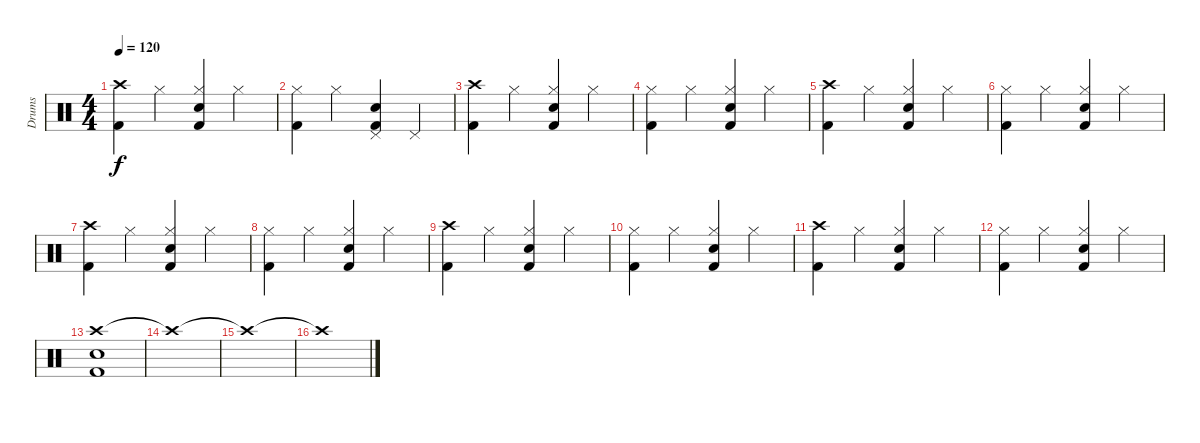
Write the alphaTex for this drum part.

\track ("Drums" "Drums") {instrument percussion}
\staff {score}
\articulation defaults
\ts (4 4)
\tempo 120
\clef neutral
\ks c
("Crash high (hit)" "Kick (hit) 2").4{dy f} "Hi-Hat (closed)".4 ("Hi-Hat (closed)" "Electric Snare (hit)" "Kick (hit) 2").4 "Hi-Hat (closed)".4 |
("Hi-Hat (closed)" "Kick (hit) 2").4 "Hi-Hat (closed)".4 ("Pedal Hi-Hat (hit)" "Electric Snare (hit)" "Kick (hit) 2").4 "Pedal Hi-Hat (hit)".4 |
("Crash high (hit)" "Kick (hit) 2").4 "Hi-Hat (closed)".4 ("Hi-Hat (closed)" "Electric Snare (hit)" "Kick (hit) 2").4 "Hi-Hat (closed)".4 |
("Hi-Hat (closed)" "Kick (hit) 2").4 "Hi-Hat (closed)".4 ("Hi-Hat (closed)" "Electric Snare (hit)" "Kick (hit) 2").4 "Hi-Hat (closed)".4 |
("Crash high (hit)" "Kick (hit) 2").4 "Hi-Hat (closed)".4 ("Hi-Hat (closed)" "Electric Snare (hit)" "Kick (hit) 2").4 "Hi-Hat (closed)".4 |
("Hi-Hat (closed)" "Kick (hit) 2").4 "Hi-Hat (closed)".4 ("Hi-Hat (closed)" "Electric Snare (hit)" "Kick (hit) 2").4 "Hi-Hat (closed)".4 |
("Crash high (hit)" "Kick (hit) 2").4 "Hi-Hat (closed)".4 ("Hi-Hat (closed)" "Electric Snare (hit)" "Kick (hit) 2").4 "Hi-Hat (closed)".4 |
("Hi-Hat (closed)" "Kick (hit) 2").4 "Hi-Hat (closed)".4 ("Hi-Hat (closed)" "Electric Snare (hit)" "Kick (hit) 2").4 "Hi-Hat (closed)".4 |
("Crash high (hit)" "Kick (hit) 2").4 "Hi-Hat (closed)".4 ("Hi-Hat (closed)" "Electric Snare (hit)" "Kick (hit) 2").4 "Hi-Hat (closed)".4 |
("Hi-Hat (closed)" "Kick (hit) 2").4 "Hi-Hat (closed)".4 ("Hi-Hat (closed)" "Electric Snare (hit)" "Kick (hit) 2").4 "Hi-Hat (closed)".4 |
("Crash high (hit)" "Kick (hit) 2").4 "Hi-Hat (closed)".4 ("Hi-Hat (closed)" "Electric Snare (hit)" "Kick (hit) 2").4 "Hi-Hat (closed)".4 |
("Hi-Hat (closed)" "Kick (hit) 2").4 "Hi-Hat (closed)".4 ("Hi-Hat (closed)" "Electric Snare (hit)" "Kick (hit) 2").4 "Hi-Hat (closed)".4 |
("Crash high (hit)" "Electric Snare (hit)" "Kick (hit) 2").1 |
"Crash high (hit)"{t}.1 |
"Crash high (hit)"{t}.1 |
"Crash high (hit)"{t}.1
